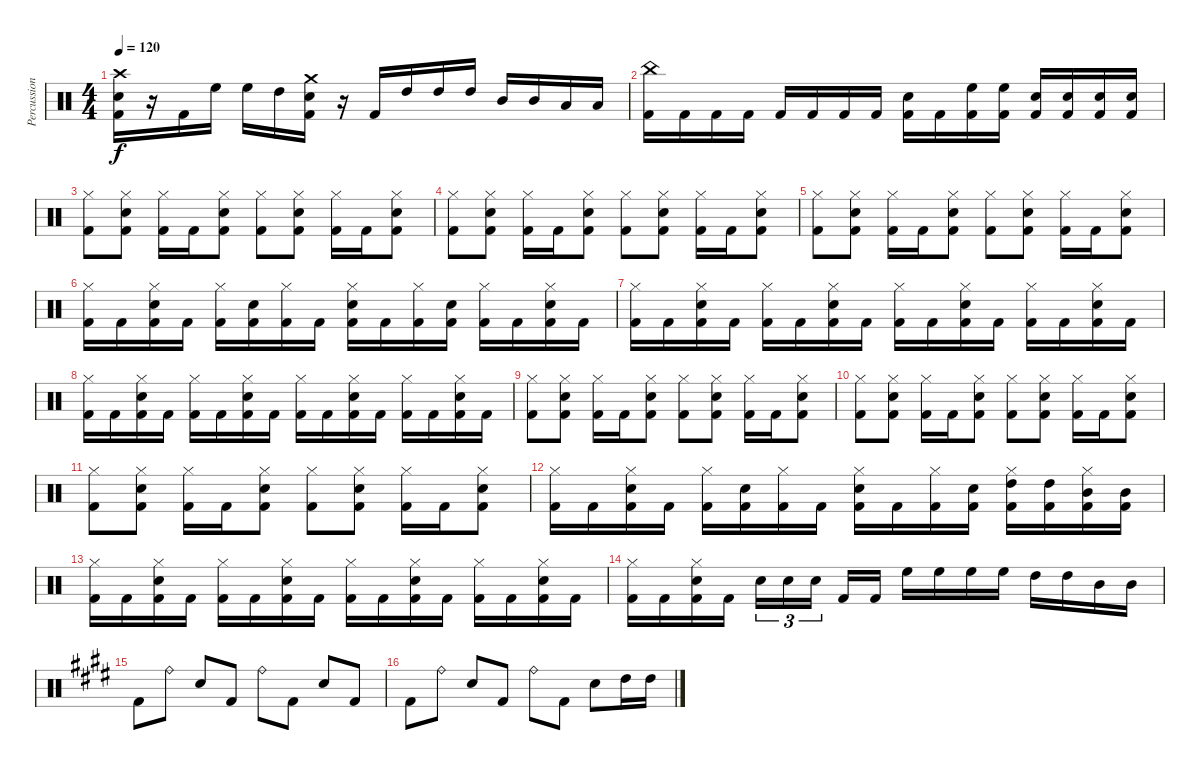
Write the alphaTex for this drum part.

\track ("Percussions" "Percussion") {instrument percussion}
\staff {score}
\articulation defaults
\ts (4 4)
\tempo 120
\clef neutral
\ks c
("Crash high (hit)" "Snare (hit) 2" "Kick (hit) 2").16{dy f} r.16 "Kick (hit) 2".16 "High Floor Tom (hit)".16 "High Floor Tom (hit)".16 "High Tom (hit)".16 ("Crash medium (hit)" "Snare (hit) 2" "Kick (hit) 2").16 r.16 "Kick (hit) 2".16 "High Tom (hit)".16 "High Tom (hit)".16 "High Tom (hit)".16 "Mid Tom (hit)".16 "Mid Tom (hit)".16 "Low Tom (hit)".16 "Low Tom (hit)".16 |
("China (hit)" "Kick (hit) 2").16 "Kick (hit) 2".16 "Kick (hit) 2".16 "Kick (hit) 2".16 "Kick (hit) 2".16 "Kick (hit) 2".16 "Kick (hit) 2".16 "Kick (hit) 2".16 ("Snare (hit) 2" "Kick (hit) 2").16 "Kick (hit) 2".16 ("High Floor Tom (hit)" "Kick (hit) 2").16 ("High Floor Tom (hit)" "Kick (hit) 2").16 ("Snare (hit) 2" "Kick (hit) 2").16 ("Snare (hit) 2" "Kick (hit) 2").16 ("Snare (hit) 2" "Kick (hit) 2").16 ("Snare (hit) 2" "Kick (hit) 2").16 |
("Hi-Hat (closed)" "Kick (hit) 2").8 ("Hi-Hat (closed)" "Snare (hit) 2" "Kick (hit) 2").8 ("Hi-Hat (closed)" "Kick (hit) 2").16 "Kick (hit) 2".16 ("Hi-Hat (closed)" "Snare (hit) 2" "Kick (hit) 2").8 ("Hi-Hat (closed)" "Kick (hit) 2").8 ("Hi-Hat (closed)" "Snare (hit) 2" "Kick (hit) 2").8 ("Hi-Hat (closed)" "Kick (hit) 2").16 "Kick (hit) 2".16 ("Hi-Hat (closed)" "Snare (hit) 2" "Kick (hit) 2").8 |
("Hi-Hat (closed)" "Kick (hit) 2").8 ("Hi-Hat (closed)" "Snare (hit) 2" "Kick (hit) 2").8 ("Hi-Hat (closed)" "Kick (hit) 2").16 "Kick (hit) 2".16 ("Hi-Hat (closed)" "Snare (hit) 2" "Kick (hit) 2").8 ("Hi-Hat (closed)" "Kick (hit) 2").8 ("Hi-Hat (closed)" "Snare (hit) 2" "Kick (hit) 2").8 ("Hi-Hat (closed)" "Kick (hit) 2").16 "Kick (hit) 2".16 ("Hi-Hat (closed)" "Snare (hit) 2" "Kick (hit) 2").8 |
("Hi-Hat (closed)" "Kick (hit) 2").8 ("Hi-Hat (closed)" "Snare (hit) 2" "Kick (hit) 2").8 ("Hi-Hat (closed)" "Kick (hit) 2").16 "Kick (hit) 2".16 ("Hi-Hat (closed)" "Snare (hit) 2" "Kick (hit) 2").8 ("Hi-Hat (closed)" "Kick (hit) 2").8 ("Hi-Hat (closed)" "Snare (hit) 2" "Kick (hit) 2").8 ("Hi-Hat (closed)" "Kick (hit) 2").16 "Kick (hit) 2".16 ("Hi-Hat (closed)" "Snare (hit) 2" "Kick (hit) 2").8 |
("Hi-Hat (closed)" "Kick (hit) 2").16 "Kick (hit) 2".16 ("Hi-Hat (closed)" "Snare (hit) 2" "Kick (hit) 2").16 "Kick (hit) 2".16 ("Hi-Hat (closed)" "Kick (hit) 2").16 ("Snare (hit) 2" "Kick (hit) 2").16 ("Hi-Hat (closed)" "Kick (hit) 2").16 "Kick (hit) 2".16 ("Hi-Hat (closed)" "Snare (hit) 2" "Kick (hit) 2").16 "Kick (hit) 2".16 ("Hi-Hat (closed)" "Kick (hit) 2").16 ("Snare (hit) 2" "Kick (hit) 2").16 ("Hi-Hat (closed)" "Kick (hit) 2").16 "Kick (hit) 2".16 ("Hi-Hat (closed)" "Snare (hit) 2" "Kick (hit) 2").16 "Kick (hit) 2".16 |
("Hi-Hat (closed)" "Kick (hit) 2").16 "Kick (hit) 2".16 ("Hi-Hat (closed)" "Snare (hit) 2" "Kick (hit) 2").16 "Kick (hit) 2".16 ("Hi-Hat (closed)" "Kick (hit) 2").16 "Kick (hit) 2".16 ("Hi-Hat (closed)" "Snare (hit) 2" "Kick (hit) 2").16 "Kick (hit) 2".16 ("Hi-Hat (closed)" "Kick (hit) 2").16 "Kick (hit) 2".16 ("Hi-Hat (closed)" "Snare (hit) 2" "Kick (hit) 2").16 "Kick (hit) 2".16 ("Hi-Hat (closed)" "Kick (hit) 2").16 "Kick (hit) 2".16 ("Hi-Hat (closed)" "Snare (hit) 2" "Kick (hit) 2").16 "Kick (hit) 2".16 |
("Hi-Hat (closed)" "Kick (hit) 2").16 "Kick (hit) 2".16 ("Hi-Hat (closed)" "Snare (hit) 2" "Kick (hit) 2").16 "Kick (hit) 2".16 ("Hi-Hat (closed)" "Kick (hit) 2").16 "Kick (hit) 2".16 ("Hi-Hat (closed)" "Snare (hit) 2" "Kick (hit) 2").16 "Kick (hit) 2".16 ("Hi-Hat (closed)" "Kick (hit) 2").16 "Kick (hit) 2".16 ("Hi-Hat (closed)" "Snare (hit) 2" "Kick (hit) 2").16 "Kick (hit) 2".16 ("Hi-Hat (closed)" "Kick (hit) 2").16 "Kick (hit) 2".16 ("Hi-Hat (closed)" "Snare (hit) 2" "Kick (hit) 2").16 "Kick (hit) 2".16 |
("Hi-Hat (closed)" "Kick (hit) 2").8 ("Hi-Hat (closed)" "Snare (hit) 2" "Kick (hit) 2").8 ("Hi-Hat (closed)" "Kick (hit) 2").16 "Kick (hit) 2".16 ("Hi-Hat (closed)" "Snare (hit) 2" "Kick (hit) 2").8 ("Hi-Hat (closed)" "Kick (hit) 2").8 ("Hi-Hat (closed)" "Snare (hit) 2" "Kick (hit) 2").8 ("Hi-Hat (closed)" "Kick (hit) 2").16 "Kick (hit) 2".16 ("Hi-Hat (closed)" "Snare (hit) 2" "Kick (hit) 2").8 |
("Hi-Hat (closed)" "Kick (hit) 2").8 ("Hi-Hat (closed)" "Snare (hit) 2" "Kick (hit) 2").8 ("Hi-Hat (closed)" "Kick (hit) 2").16 "Kick (hit) 2".16 ("Hi-Hat (closed)" "Snare (hit) 2" "Kick (hit) 2").8 ("Hi-Hat (closed)" "Kick (hit) 2").8 ("Hi-Hat (closed)" "Snare (hit) 2" "Kick (hit) 2").8 ("Hi-Hat (closed)" "Kick (hit) 2").16 "Kick (hit) 2".16 ("Hi-Hat (closed)" "Snare (hit) 2" "Kick (hit) 2").8 |
("Hi-Hat (closed)" "Kick (hit) 2").8 ("Hi-Hat (closed)" "Snare (hit) 2" "Kick (hit) 2").8 ("Hi-Hat (closed)" "Kick (hit) 2").16 "Kick (hit) 2".16 ("Hi-Hat (closed)" "Snare (hit) 2" "Kick (hit) 2").8 ("Hi-Hat (closed)" "Kick (hit) 2").8 ("Hi-Hat (closed)" "Snare (hit) 2" "Kick (hit) 2").8 ("Hi-Hat (closed)" "Kick (hit) 2").16 "Kick (hit) 2".16 ("Hi-Hat (closed)" "Snare (hit) 2" "Kick (hit) 2").8 |
("Hi-Hat (closed)" "Kick (hit) 2").16 "Kick (hit) 2".16 ("Hi-Hat (closed)" "Snare (hit) 2" "Kick (hit) 2").16 "Kick (hit) 2".16 ("Hi-Hat (closed)" "Kick (hit) 2").16 ("Snare (hit) 2" "Kick (hit) 2").16 ("Hi-Hat (closed)" "Kick (hit) 2").16 "Kick (hit) 2".16 ("Hi-Hat (closed)" "Snare (hit) 2" "Kick (hit) 2").16 "Kick (hit) 2".16 ("Hi-Hat (closed)" "Kick (hit) 2").16 ("Snare (hit) 2" "Kick (hit) 2").16 ("Hi-Hat (closed)" "High Tom (hit)" "Kick (hit) 2").16 ("High Tom (hit)" "Kick (hit) 2").16 ("Hi-Hat (closed)" "Mid Tom (hit)" "Kick (hit) 2").16 ("Mid Tom (hit)" "Kick (hit) 2").16 |
("Hi-Hat (closed)" "Kick (hit) 2").16 "Kick (hit) 2".16 ("Hi-Hat (closed)" "Snare (hit) 2" "Kick (hit) 2").16 "Kick (hit) 2".16 ("Hi-Hat (closed)" "Kick (hit) 2").16 "Kick (hit) 2".16 ("Hi-Hat (closed)" "Snare (hit) 2" "Kick (hit) 2").16 "Kick (hit) 2".16 ("Hi-Hat (closed)" "Kick (hit) 2").16 "Kick (hit) 2".16 ("Hi-Hat (closed)" "Snare (hit) 2" "Kick (hit) 2").16 "Kick (hit) 2".16 ("Hi-Hat (closed)" "Kick (hit) 2").16 "Kick (hit) 2".16 ("Hi-Hat (closed)" "Snare (hit) 2" "Kick (hit) 2").16 "Kick (hit) 2".16 |
("Hi-Hat (closed)" "Kick (hit) 2").16 "Kick (hit) 2".16 ("Hi-Hat (closed)" "Snare (hit) 2" "Kick (hit) 2").16 "Kick (hit) 2".16 "Snare (hit) 2".16{tu (3 2)} "Snare (hit) 2".16{tu (3 2)} "Snare (hit) 2".16{tu (3 2) beam splitsecondary} "Kick (hit) 2".16 "Kick (hit) 2".16 "High Floor Tom (hit)".16 "High Floor Tom (hit)".16 "High Floor Tom (hit)".16 "High Floor Tom (hit)".16 "High Tom (hit)".16 "High Tom (hit)".16 "Mid Tom (hit)".16 "Mid Tom (hit)".16 |
\ks c#minor "Kick (hit) 2".8 "Ride (bell)".8 "Snare (hit) 2".8 "Kick (hit) 2".8 "Ride (bell)".8 "Kick (hit) 2".8 "Snare (hit) 2".8 "Kick (hit) 2".8
|
"Kick (hit) 2".8 "Ride (bell)".8 "Snare (hit) 2".8 "Kick (hit) 2".8 "Ride (bell)".8 "Kick (hit) 2".8 "Snare (hit) 2".8 "High Tom (hit)".16 "High Tom (hit)".16
